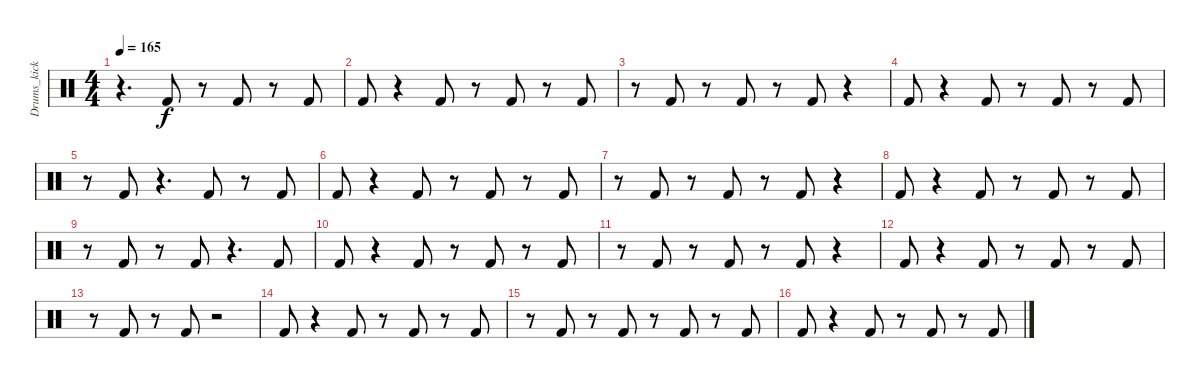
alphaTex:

\track ("Drums_kick" "Drums_kick") {instrument percussion}
\staff {score}
\articulation defaults
\ts (4 4)
\tempo 165
\clef neutral
\ks c
r.4{d dy f} "Kick (hit) 2".8 r.8 "Kick (hit) 2".8 r.8 "Kick (hit) 2".8 |
"Kick (hit) 2".8 r.4 "Kick (hit) 2".8 r.8 "Kick (hit) 2".8 r.8 "Kick (hit) 2".8 |
r.8 "Kick (hit) 2".8 r.8 "Kick (hit) 2".8 r.8 "Kick (hit) 2".8 r.4 |
"Kick (hit) 2".8 r.4 "Kick (hit) 2".8 r.8 "Kick (hit) 2".8 r.8 "Kick (hit) 2".8 |
r.8 "Kick (hit) 2".8 r.4{d} "Kick (hit) 2".8 r.8 "Kick (hit) 2".8 |
"Kick (hit) 2".8 r.4 "Kick (hit) 2".8 r.8 "Kick (hit) 2".8 r.8 "Kick (hit) 2".8 |
r.8 "Kick (hit) 2".8 r.8 "Kick (hit) 2".8 r.8 "Kick (hit) 2".8 r.4 |
"Kick (hit) 2".8 r.4 "Kick (hit) 2".8 r.8 "Kick (hit) 2".8 r.8 "Kick (hit) 2".8 |
r.8 "Kick (hit) 2".8 r.8 "Kick (hit) 2".8 r.4{d} "Kick (hit) 2".8 |
"Kick (hit) 2".8 r.4 "Kick (hit) 2".8 r.8 "Kick (hit) 2".8 r.8 "Kick (hit) 2".8 |
r.8 "Kick (hit) 2".8 r.8 "Kick (hit) 2".8 r.8 "Kick (hit) 2".8 r.4 |
"Kick (hit) 2".8 r.4 "Kick (hit) 2".8 r.8 "Kick (hit) 2".8 r.8 "Kick (hit) 2".8 |
r.8 "Kick (hit) 2".8 r.8 "Kick (hit) 2".8 r.2 |
"Kick (hit) 2".8 r.4 "Kick (hit) 2".8 r.8 "Kick (hit) 2".8 r.8 "Kick (hit) 2".8 |
r.8 "Kick (hit) 2".8 r.8 "Kick (hit) 2".8 r.8 "Kick (hit) 2".8 r.8 "Kick (hit) 2".8 |
"Kick (hit) 2".8 r.4 "Kick (hit) 2".8 r.8 "Kick (hit) 2".8 r.8 "Kick (hit) 2".8
